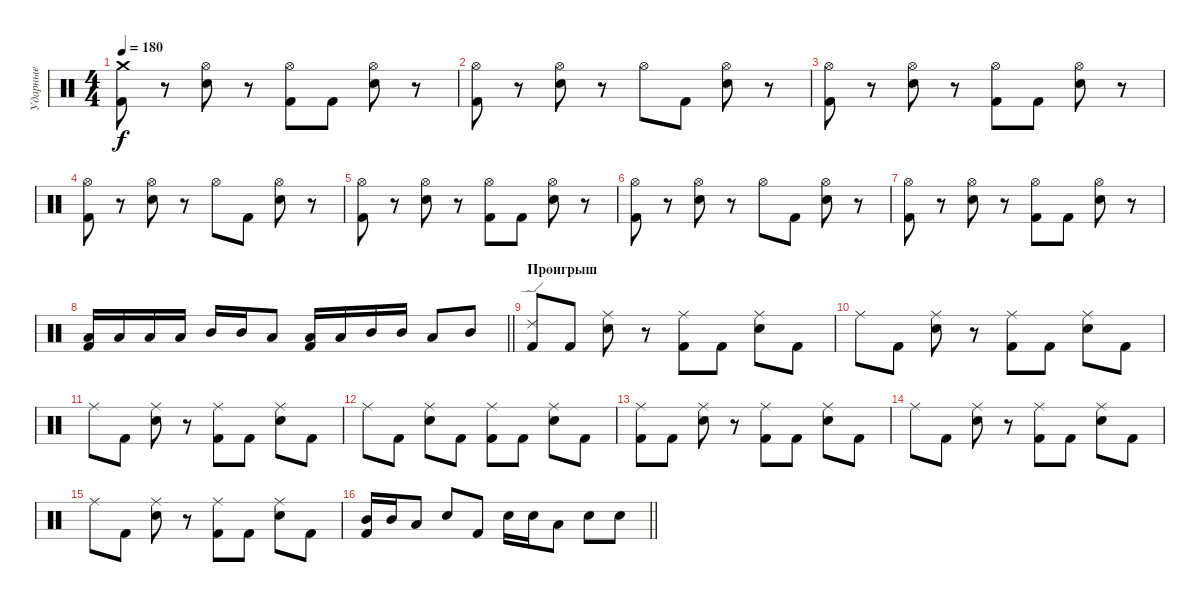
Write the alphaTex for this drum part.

\track ("Ударные" "Ударные") {instrument percussion}
\staff {score}
\articulation defaults
\ts (4 4)
\tempo 180
\clef neutral
\ks c
("Crash medium (hit)" "Kick (hit) 2").8{dy f} r.8 ("Hi-Hat (open)" "Snare (hit) 2").8 r.8 ("Hi-Hat (open)" "Kick (hit) 2").8 "Kick (hit) 2".8 ("Hi-Hat (open)" "Snare (hit) 2").8 r.8 |
("Hi-Hat (open)" "Kick (hit) 2").8 r.8 ("Hi-Hat (open)" "Snare (hit) 2").8 r.8 "Hi-Hat (open)".8 "Kick (hit) 2".8 ("Hi-Hat (open)" "Snare (hit) 2").8 r.8 |
("Hi-Hat (open)" "Kick (hit) 2").8 r.8 ("Hi-Hat (open)" "Snare (hit) 2").8 r.8 ("Hi-Hat (open)" "Kick (hit) 2").8 "Kick (hit) 2".8 ("Hi-Hat (open)" "Snare (hit) 2").8 r.8 |
("Hi-Hat (open)" "Kick (hit) 2").8 r.8 ("Hi-Hat (open)" "Snare (hit) 2").8 r.8 "Hi-Hat (open)".8 "Kick (hit) 2".8 ("Hi-Hat (open)" "Snare (hit) 2").8 r.8 |
("Hi-Hat (open)" "Kick (hit) 2").8 r.8 ("Hi-Hat (open)" "Snare (hit) 2").8 r.8 ("Hi-Hat (open)" "Kick (hit) 2").8 "Kick (hit) 2".8 ("Hi-Hat (open)" "Snare (hit) 2").8 r.8 |
("Hi-Hat (open)" "Kick (hit) 2").8 r.8 ("Hi-Hat (open)" "Snare (hit) 2").8 r.8 "Hi-Hat (open)".8 "Kick (hit) 2".8 ("Hi-Hat (open)" "Snare (hit) 2").8 r.8 |
("Hi-Hat (open)" "Kick (hit) 2").8 r.8 ("Hi-Hat (open)" "Snare (hit) 2").8 r.8 ("Hi-Hat (open)" "Kick (hit) 2").8 "Kick (hit) 2".8 ("Hi-Hat (open)" "Snare (hit) 2").8 r.8 |
\barLineRight lightlight
("Low Floor Tom (hit)" "Kick (hit) 2").16 "Low Floor Tom (hit)".16 "Low Tom (hit)".16 "Low Tom (hit)".16 "Mid Tom (hit)".16 "Mid Tom (hit)".16 "Low Floor Tom (hit)".8 ("Low Tom (hit)" "Kick (hit) 2").16 "Low Tom (hit)".16 "Mid Tom (hit)".16 "Mid Tom (hit)".16 "Low Floor Tom (hit)".8 "Mid Tom (hit)".8 |
\section ("" "Проигрыш")
("Ride (edge) 2" "Kick (hit) 2").8 "Kick (hit) 2".8 ("Ride (middle)" "Snare (hit) 2").8 r.8 ("Ride (middle)" "Kick (hit) 2").8 "Kick (hit) 2".8 ("Ride (middle)" "Snare (hit) 2").8 "Kick (hit) 2".8 |
"Ride (middle)".8 "Kick (hit) 2".8 ("Ride (middle)" "Snare (hit) 2").8 r.8 ("Ride (middle)" "Kick (hit) 2").8 "Kick (hit) 2".8 ("Ride (middle)" "Snare (hit) 2").8 "Kick (hit) 2".8 |
"Ride (middle)".8 "Kick (hit) 2".8 ("Ride (middle)" "Snare (hit) 2").8 r.8 ("Ride (middle)" "Kick (hit) 2").8 "Kick (hit) 2".8 ("Ride (middle)" "Snare (hit) 2").8 "Kick (hit) 2".8 |
"Ride (middle)".8 "Kick (hit) 2".8 ("Ride (middle)" "Snare (hit) 2").8 "Kick (hit) 2".8 ("Ride (middle)" "Kick (hit) 2").8 "Kick (hit) 2".8 ("Ride (middle)" "Snare (hit) 2").8 "Kick (hit) 2".8 |
("Ride (middle)" "Kick (hit) 2").8 "Kick (hit) 2".8 ("Ride (middle)" "Snare (hit) 2").8 r.8 ("Ride (middle)" "Kick (hit) 2").8 "Kick (hit) 2".8 ("Ride (middle)" "Snare (hit) 2").8 "Kick (hit) 2".8 |
"Ride (middle)".8 "Kick (hit) 2".8 ("Ride (middle)" "Snare (hit) 2").8 r.8 ("Ride (middle)" "Kick (hit) 2").8 "Kick (hit) 2".8 ("Ride (middle)" "Snare (hit) 2").8 "Kick (hit) 2".8 |
"Ride (middle)".8 "Kick (hit) 2".8 ("Ride (middle)" "Snare (hit) 2").8 r.8 ("Ride (middle)" "Kick (hit) 2").8 "Kick (hit) 2".8 ("Ride (middle)" "Snare (hit) 2").8 "Kick (hit) 2".8 |
\barLineRight lightlight
("Mid Tom (hit)" "Kick (hit) 2").16 "Mid Tom (hit)".16 "Low Tom (hit)".8 "Snare (hit) 2".8 "Kick (hit) 2".8 "Snare (hit) 2".16 "Snare (hit) 2".16 "Low Tom (hit)".8 "Snare (hit) 2".8 "Snare (hit) 2".8
